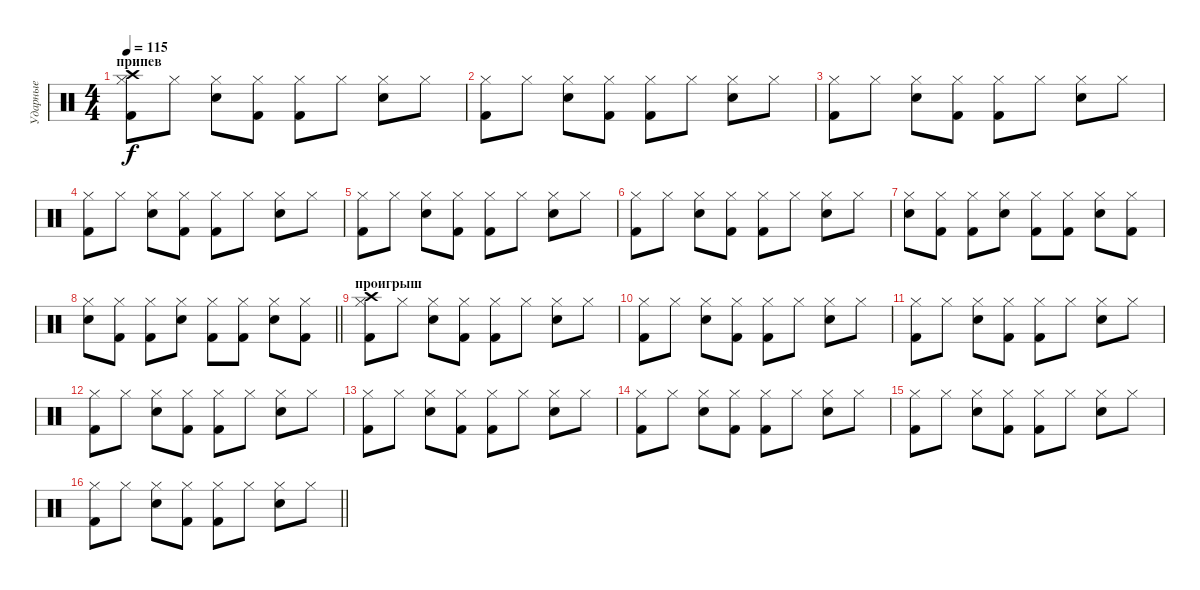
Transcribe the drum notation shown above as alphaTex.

\track ("Ударные" "Ударные") {instrument percussion}
\staff {score}
\articulation defaults
\ts (4 4)
\section ("" "припев")
\tempo 115
\clef neutral
\ks c
("Hi-Hat (closed)" "Kick (hit) 2" "Crash high (hit)").8{dy f} "Hi-Hat (closed)".8 ("Hi-Hat (closed)" "Snare (hit) 2").8 ("Hi-Hat (closed)" "Kick (hit) 2").8 ("Hi-Hat (closed)" "Kick (hit) 2").8 "Hi-Hat (closed)".8 ("Hi-Hat (closed)" "Snare (hit) 2").8 "Hi-Hat (closed)".8 |
("Hi-Hat (closed)" "Kick (hit) 2").8 "Hi-Hat (closed)".8 ("Hi-Hat (closed)" "Snare (hit) 2").8 ("Hi-Hat (closed)" "Kick (hit) 2").8 ("Hi-Hat (closed)" "Kick (hit) 2").8 "Hi-Hat (closed)".8 ("Hi-Hat (closed)" "Snare (hit) 2").8 "Hi-Hat (closed)".8 |
("Hi-Hat (closed)" "Kick (hit) 2").8 "Hi-Hat (closed)".8 ("Hi-Hat (closed)" "Snare (hit) 2").8 ("Hi-Hat (closed)" "Kick (hit) 2").8 ("Hi-Hat (closed)" "Kick (hit) 2").8 "Hi-Hat (closed)".8 ("Hi-Hat (closed)" "Snare (hit) 2").8 "Hi-Hat (closed)".8 |
("Hi-Hat (closed)" "Kick (hit) 2").8 "Hi-Hat (closed)".8 ("Hi-Hat (closed)" "Snare (hit) 2").8 ("Hi-Hat (closed)" "Kick (hit) 2").8 ("Hi-Hat (closed)" "Kick (hit) 2").8 "Hi-Hat (closed)".8 ("Hi-Hat (closed)" "Snare (hit) 2").8 "Hi-Hat (closed)".8 |
("Hi-Hat (closed)" "Kick (hit) 2").8 "Hi-Hat (closed)".8 ("Hi-Hat (closed)" "Snare (hit) 2").8 ("Hi-Hat (closed)" "Kick (hit) 2").8 ("Hi-Hat (closed)" "Kick (hit) 2").8 "Hi-Hat (closed)".8 ("Hi-Hat (closed)" "Snare (hit) 2").8 "Hi-Hat (closed)".8 |
("Hi-Hat (closed)" "Kick (hit) 2").8 "Hi-Hat (closed)".8 ("Hi-Hat (closed)" "Snare (hit) 2").8 ("Hi-Hat (closed)" "Kick (hit) 2").8 ("Hi-Hat (closed)" "Kick (hit) 2").8 "Hi-Hat (closed)".8 ("Hi-Hat (closed)" "Snare (hit) 2").8 "Hi-Hat (closed)".8 |
("Hi-Hat (closed)" "Snare (hit) 2").8 ("Hi-Hat (closed)" "Kick (hit) 2").8 ("Hi-Hat (closed)" "Kick (hit) 2").8 ("Hi-Hat (closed)" "Snare (hit) 2").8 ("Hi-Hat (closed)" "Kick (hit) 2").8 ("Hi-Hat (closed)" "Kick (hit) 2").8 ("Hi-Hat (closed)" "Snare (hit) 2").8 ("Hi-Hat (closed)" "Kick (hit) 2").8 |
\barLineRight lightlight
("Hi-Hat (closed)" "Snare (hit) 2").8 ("Hi-Hat (closed)" "Kick (hit) 2").8 ("Hi-Hat (closed)" "Kick (hit) 2").8 ("Hi-Hat (closed)" "Snare (hit) 2").8 ("Hi-Hat (closed)" "Kick (hit) 2").8 ("Hi-Hat (closed)" "Kick (hit) 2").8 ("Hi-Hat (closed)" "Snare (hit) 2").8 ("Hi-Hat (closed)" "Kick (hit) 2").8 |
\section ("" "проигрыш")
("Hi-Hat (closed)" "Kick (hit) 2" "Crash high (hit)").8 "Hi-Hat (closed)".8 ("Hi-Hat (closed)" "Snare (hit) 2").8 ("Hi-Hat (closed)" "Kick (hit) 2").8 ("Hi-Hat (closed)" "Kick (hit) 2").8 "Hi-Hat (closed)".8 ("Hi-Hat (closed)" "Snare (hit) 2").8 "Hi-Hat (closed)".8 |
("Hi-Hat (closed)" "Kick (hit) 2").8 "Hi-Hat (closed)".8 ("Hi-Hat (closed)" "Snare (hit) 2").8 ("Hi-Hat (closed)" "Kick (hit) 2").8 ("Hi-Hat (closed)" "Kick (hit) 2").8 "Hi-Hat (closed)".8 ("Hi-Hat (closed)" "Snare (hit) 2").8 "Hi-Hat (closed)".8 |
("Hi-Hat (closed)" "Kick (hit) 2").8 "Hi-Hat (closed)".8 ("Hi-Hat (closed)" "Snare (hit) 2").8 ("Hi-Hat (closed)" "Kick (hit) 2").8 ("Hi-Hat (closed)" "Kick (hit) 2").8 "Hi-Hat (closed)".8 ("Hi-Hat (closed)" "Snare (hit) 2").8 "Hi-Hat (closed)".8 |
("Hi-Hat (closed)" "Kick (hit) 2").8 "Hi-Hat (closed)".8 ("Hi-Hat (closed)" "Snare (hit) 2").8 ("Hi-Hat (closed)" "Kick (hit) 2").8 ("Hi-Hat (closed)" "Kick (hit) 2").8 "Hi-Hat (closed)".8 ("Hi-Hat (closed)" "Snare (hit) 2").8 "Hi-Hat (closed)".8 |
("Hi-Hat (closed)" "Kick (hit) 2").8 "Hi-Hat (closed)".8 ("Hi-Hat (closed)" "Snare (hit) 2").8 ("Hi-Hat (closed)" "Kick (hit) 2").8 ("Hi-Hat (closed)" "Kick (hit) 2").8 "Hi-Hat (closed)".8 ("Hi-Hat (closed)" "Snare (hit) 2").8 "Hi-Hat (closed)".8 |
("Hi-Hat (closed)" "Kick (hit) 2").8 "Hi-Hat (closed)".8 ("Hi-Hat (closed)" "Snare (hit) 2").8 ("Hi-Hat (closed)" "Kick (hit) 2").8 ("Hi-Hat (closed)" "Kick (hit) 2").8 "Hi-Hat (closed)".8 ("Hi-Hat (closed)" "Snare (hit) 2").8 "Hi-Hat (closed)".8 |
("Hi-Hat (closed)" "Kick (hit) 2").8 "Hi-Hat (closed)".8 ("Hi-Hat (closed)" "Snare (hit) 2").8 ("Hi-Hat (closed)" "Kick (hit) 2").8 ("Hi-Hat (closed)" "Kick (hit) 2").8 "Hi-Hat (closed)".8 ("Hi-Hat (closed)" "Snare (hit) 2").8 "Hi-Hat (closed)".8 |
\barLineRight lightlight
("Hi-Hat (closed)" "Kick (hit) 2").8 "Hi-Hat (closed)".8 ("Hi-Hat (closed)" "Snare (hit) 2").8 ("Hi-Hat (closed)" "Kick (hit) 2").8 ("Hi-Hat (closed)" "Kick (hit) 2").8 "Hi-Hat (closed)".8 ("Hi-Hat (closed)" "Snare (hit) 2").8 "Hi-Hat (closed)".8
